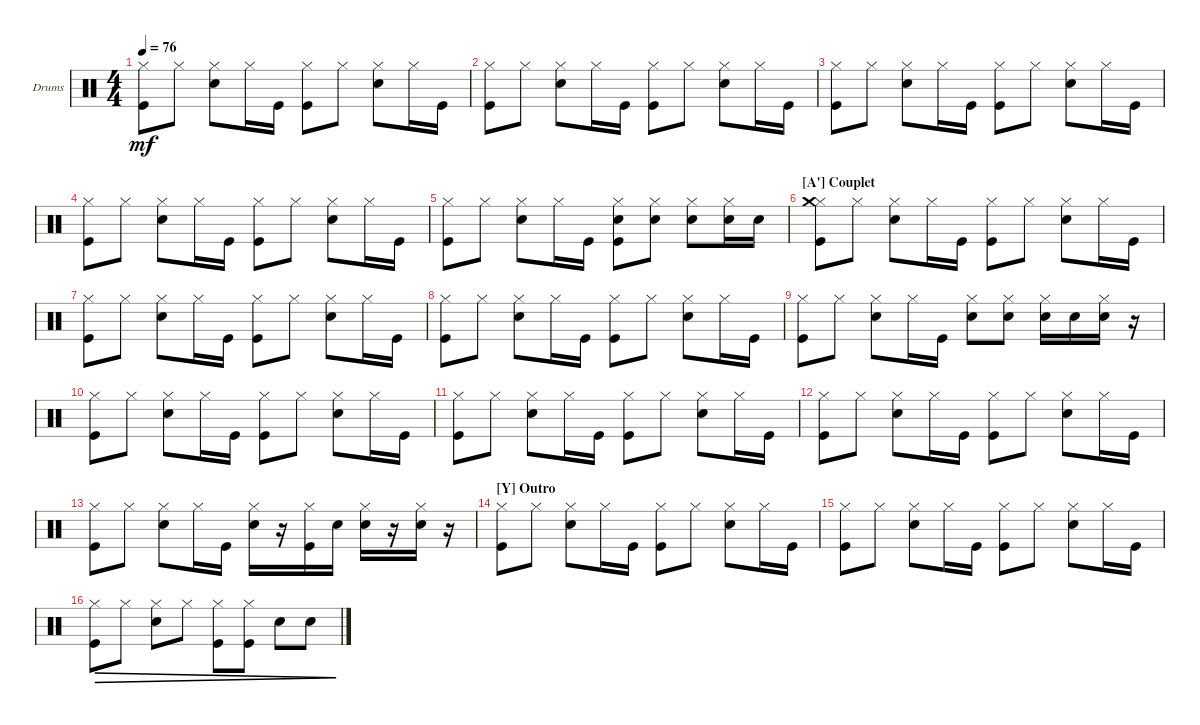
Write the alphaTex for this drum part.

\defaultSystemsLayout 4
\bracketExtendMode groupsimilarinstruments
\firstSystemTrackNameOrientation horizontal
\otherSystemsTrackNameOrientation horizontal
\track ("Drums" "Drums") {instrument percussion}
\staff {score}
\articulation defaults
\ts (4 4)
\tempo 76
\clef neutral
\ks c
("Kick (hit)" "Hi-Hat (closed)").8{dy mf} "Hi-Hat (closed)".8 ("Hi-Hat (closed)" "Snare (hit) 2").8 "Hi-Hat (closed)".16 "Kick (hit)".16 ("Hi-Hat (closed)" "Kick (hit)").8 "Hi-Hat (closed)".8 ("Hi-Hat (closed)" "Snare (hit) 2").8 "Hi-Hat (closed)".16 "Kick (hit)".16 |
("Kick (hit)" "Hi-Hat (closed)").8 "Hi-Hat (closed)".8 ("Hi-Hat (closed)" "Snare (hit) 2").8 "Hi-Hat (closed)".16 "Kick (hit)".16 ("Hi-Hat (closed)" "Kick (hit)").8 "Hi-Hat (closed)".8 ("Hi-Hat (closed)" "Snare (hit) 2").8 "Hi-Hat (closed)".16 "Kick (hit)".16 |
("Kick (hit)" "Hi-Hat (closed)").8 "Hi-Hat (closed)".8 ("Hi-Hat (closed)" "Snare (hit) 2").8 "Hi-Hat (closed)".16 "Kick (hit)".16 ("Hi-Hat (closed)" "Kick (hit)").8 "Hi-Hat (closed)".8 ("Hi-Hat (closed)" "Snare (hit) 2").8 "Hi-Hat (closed)".16 "Kick (hit)".16 |
("Kick (hit)" "Hi-Hat (closed)").8 "Hi-Hat (closed)".8 ("Hi-Hat (closed)" "Snare (hit) 2").8 "Hi-Hat (closed)".16 "Kick (hit)".16 ("Hi-Hat (closed)" "Kick (hit)").8 "Hi-Hat (closed)".8 ("Hi-Hat (closed)" "Snare (hit) 2").8 "Hi-Hat (closed)".16 "Kick (hit)".16 |
("Kick (hit)" "Hi-Hat (closed)").8 "Hi-Hat (closed)".8 ("Hi-Hat (closed)" "Snare (hit) 2").8 "Hi-Hat (closed)".16 "Kick (hit)".16 ("Hi-Hat (closed)" "Kick (hit)" "Snare (hit) 2").8 ("Hi-Hat (closed)" "Snare (hit) 2").8 ("Hi-Hat (closed)" "Snare (hit) 2").8 ("Hi-Hat (closed)" "Snare (hit) 2").16 "Snare (hit) 2".16 |
\section ("A'" "Couplet")
("Kick (hit)" "Hi-Hat (closed)" "Crash medium (hit)").8 "Hi-Hat (closed)".8 ("Hi-Hat (closed)" "Snare (hit) 2").8 "Hi-Hat (closed)".16 "Kick (hit)".16 ("Hi-Hat (closed)" "Kick (hit)").8 "Hi-Hat (closed)".8 ("Hi-Hat (closed)" "Snare (hit) 2").8 "Hi-Hat (closed)".16 "Kick (hit)".16 |
("Kick (hit)" "Hi-Hat (closed)").8 "Hi-Hat (closed)".8 ("Hi-Hat (closed)" "Snare (hit) 2").8 "Hi-Hat (closed)".16 "Kick (hit)".16 ("Hi-Hat (closed)" "Kick (hit)").8 "Hi-Hat (closed)".8 ("Hi-Hat (closed)" "Snare (hit) 2").8 "Hi-Hat (closed)".16 "Kick (hit)".16 |
("Kick (hit)" "Hi-Hat (closed)").8 "Hi-Hat (closed)".8 ("Hi-Hat (closed)" "Snare (hit) 2").8 "Hi-Hat (closed)".16 "Kick (hit)".16 ("Hi-Hat (closed)" "Kick (hit)").8 "Hi-Hat (closed)".8 ("Hi-Hat (closed)" "Snare (hit) 2").8 "Hi-Hat (closed)".16 "Kick (hit)".16 |
("Kick (hit)" "Hi-Hat (closed)").8 "Hi-Hat (closed)".8 ("Hi-Hat (closed)" "Snare (hit) 2").8 "Hi-Hat (closed)".16 "Kick (hit)".16 ("Hi-Hat (closed)" "Snare (hit) 2").8 ("Hi-Hat (closed)" "Snare (hit) 2").8 ("Hi-Hat (closed)" "Snare (hit) 2").16 "Snare (hit) 2".16 ("Hi-Hat (closed)" "Snare (hit) 2").16 r.16 |
("Kick (hit)" "Hi-Hat (closed)").8 "Hi-Hat (closed)".8 ("Hi-Hat (closed)" "Snare (hit) 2").8 "Hi-Hat (closed)".16 "Kick (hit)".16 ("Hi-Hat (closed)" "Kick (hit)").8 "Hi-Hat (closed)".8 ("Hi-Hat (closed)" "Snare (hit) 2").8 "Hi-Hat (closed)".16 "Kick (hit)".16 |
("Kick (hit)" "Hi-Hat (closed)").8 "Hi-Hat (closed)".8 ("Hi-Hat (closed)" "Snare (hit) 2").8 "Hi-Hat (closed)".16 "Kick (hit)".16 ("Hi-Hat (closed)" "Kick (hit)").8 "Hi-Hat (closed)".8 ("Hi-Hat (closed)" "Snare (hit) 2").8 "Hi-Hat (closed)".16 "Kick (hit)".16 |
("Kick (hit)" "Hi-Hat (closed)").8 "Hi-Hat (closed)".8 ("Hi-Hat (closed)" "Snare (hit) 2").8 "Hi-Hat (closed)".16 "Kick (hit)".16 ("Hi-Hat (closed)" "Kick (hit)").8 "Hi-Hat (closed)".8 ("Hi-Hat (closed)" "Snare (hit) 2").8 "Hi-Hat (closed)".16 "Kick (hit)".16 |
("Kick (hit)" "Hi-Hat (closed)").8 "Hi-Hat (closed)".8 ("Hi-Hat (closed)" "Snare (hit) 2").8 "Hi-Hat (closed)".16 "Kick (hit)".16 ("Hi-Hat (closed)" "Snare (hit) 2").16 r.16 ("Kick (hit)" "Hi-Hat (closed)").16 "Snare (hit) 2".16 ("Snare (hit) 2" "Hi-Hat (closed)").16 r.16 ("Snare (hit) 2" "Hi-Hat (closed)").16 r.16 |
\section ("Y" "Outro")
("Kick (hit)" "Hi-Hat (closed)").8 "Hi-Hat (closed)".8 ("Hi-Hat (closed)" "Snare (hit) 2").8 "Hi-Hat (closed)".16 "Kick (hit)".16 ("Hi-Hat (closed)" "Kick (hit)").8 "Hi-Hat (closed)".8 ("Hi-Hat (closed)" "Snare (hit) 2").8 "Hi-Hat (closed)".16 "Kick (hit)".16 |
("Kick (hit)" "Hi-Hat (closed)").8 "Hi-Hat (closed)".8 ("Hi-Hat (closed)" "Snare (hit) 2").8 "Hi-Hat (closed)".16 "Kick (hit)".16 ("Hi-Hat (closed)" "Kick (hit)").8 "Hi-Hat (closed)".8 ("Hi-Hat (closed)" "Snare (hit) 2").8 "Hi-Hat (closed)".16 "Kick (hit)".16 |
("Kick (hit)" "Hi-Hat (closed)").8{dec} "Hi-Hat (closed)".8{dec} ("Hi-Hat (closed)" "Snare (hit) 2").8{dec} "Hi-Hat (closed)".8{dec} ("Hi-Hat (closed)" "Kick (hit)").8{dec} ("Hi-Hat (closed)" "Kick (hit)").8{dec} "Snare (hit) 2".8{dec} "Snare (hit) 2".8{dec}
